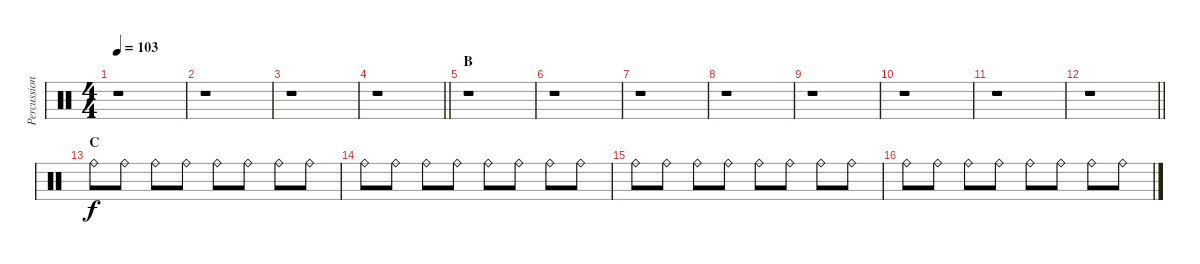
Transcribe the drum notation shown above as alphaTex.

\track ("Percussion" "Percussion") {instrument percussion}
\staff {score}
\articulation defaults
\ts (4 4)
\tempo 103
\clef neutral
\ks c
r.1{dy f} |
r.1 |
r.1 |
\barLineRight lightlight
r.1 |
\section ("" "B")
r.1 |
r.1 |
r.1 |
r.1 |
r.1 |
r.1 |
r.1 |
\barLineRight lightlight
r.1 |
\section ("" "C")
"Ride (bell)".8 "Ride (bell)".8 "Ride (bell)".8 "Ride (bell)".8 "Ride (bell)".8 "Ride (bell)".8 "Ride (bell)".8 "Ride (bell)".8 |
"Ride (bell)".8 "Ride (bell)".8 "Ride (bell)".8 "Ride (bell)".8 "Ride (bell)".8 "Ride (bell)".8 "Ride (bell)".8 "Ride (bell)".8 |
"Ride (bell)".8 "Ride (bell)".8 "Ride (bell)".8 "Ride (bell)".8 "Ride (bell)".8 "Ride (bell)".8 "Ride (bell)".8 "Ride (bell)".8 |
"Ride (bell)".8 "Ride (bell)".8 "Ride (bell)".8 "Ride (bell)".8 "Ride (bell)".8 "Ride (bell)".8 "Ride (bell)".8 "Ride (bell)".8
